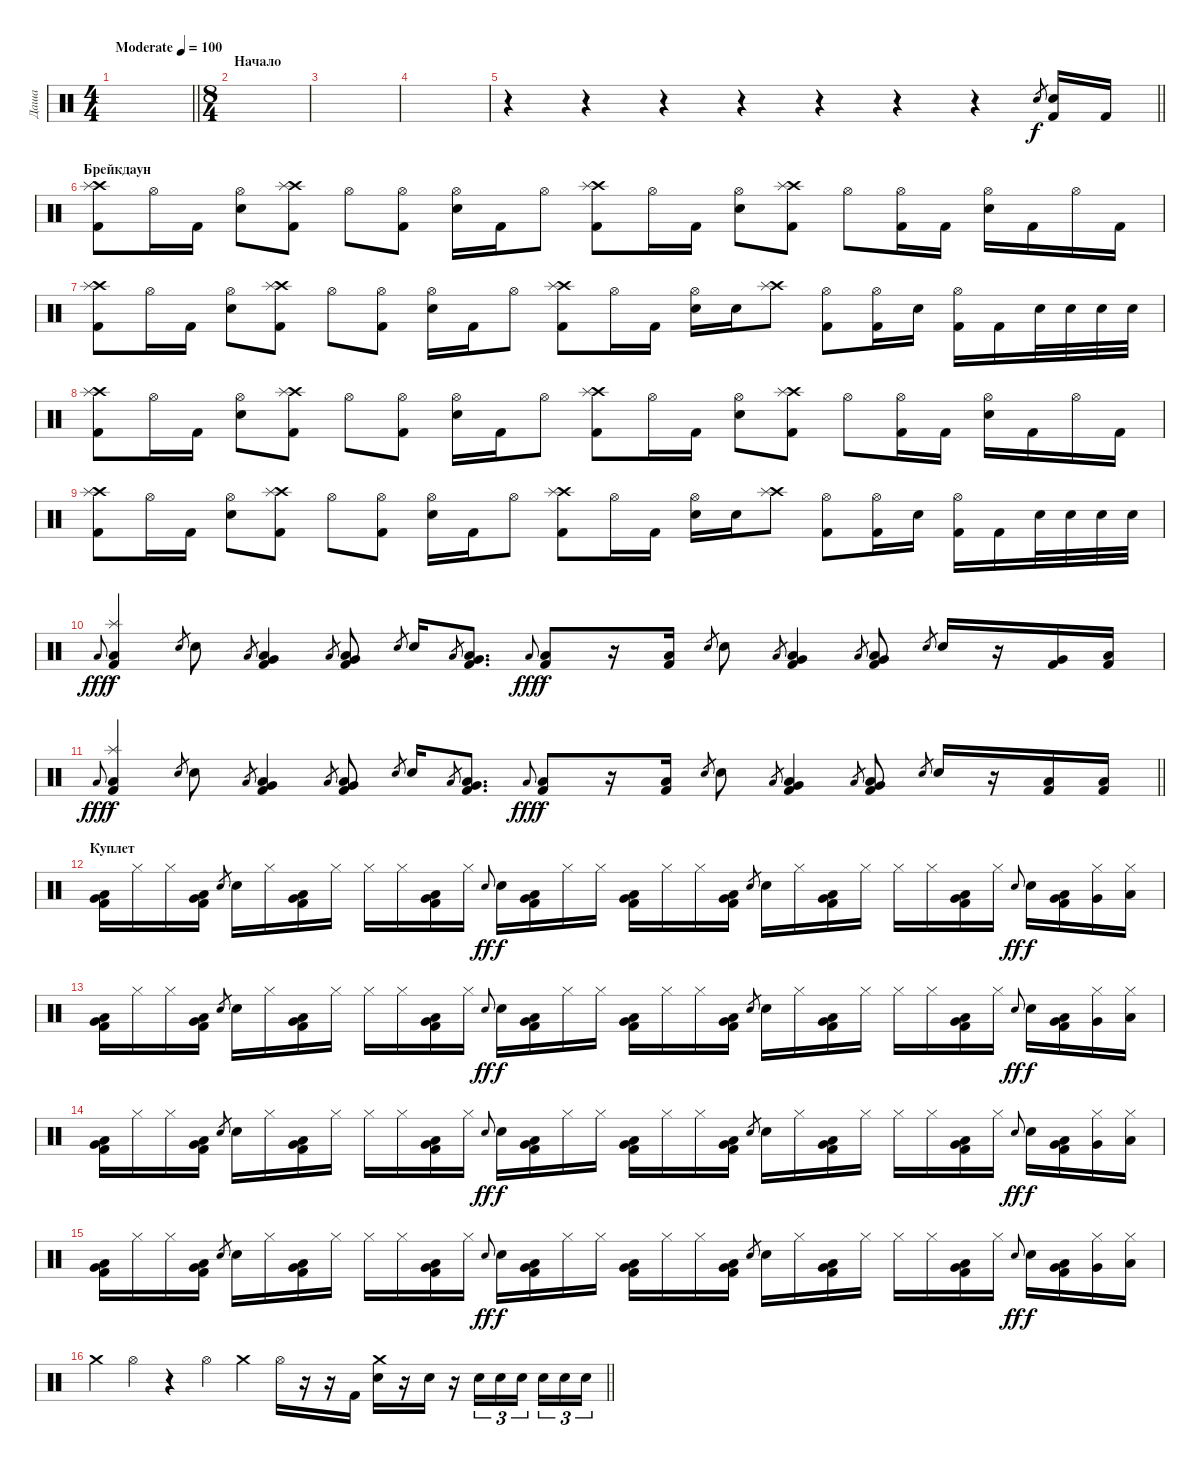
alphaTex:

\track ("Даша" "Даша") {instrument percussion}
\staff {score}
\articulation defaults
\ts (4 4)
\tempo (100 "Moderate")
\clef neutral
\barLineRight lightlight
\ks c
|
\ts (8 4)
\section ("" "Начало")
|
|
|
\barLineRight lightlight
r.4 r.4 r.4 r.4 r.4 r.4 r.4 "Electric Snare (hit)".8{gr} ("Electric Snare (hit)" "Kick (hit) 2").16 "Kick (hit) 2".16 |
\section ("" "Брейкдаун")
("Crash high (hit)" "Splash (hit)" "Kick (hit) 2").8 "Hi-Hat (open)".16 "Kick (hit) 2".16 ("Hi-Hat (open)" "Electric Snare (hit)").8 ("Crash high (hit)" "Splash (hit)" "Kick (hit) 2").8 "Hi-Hat (open)".8 ("Hi-Hat (open)" "Kick (hit) 2").8 ("Hi-Hat (open)" "Electric Snare (hit)").16 "Kick (hit) 2".16 "Hi-Hat (open)".8 ("Crash high (hit)" "Splash (hit)" "Kick (hit) 2").8 "Hi-Hat (open)".16 "Kick (hit) 2".16 ("Hi-Hat (open)" "Electric Snare (hit)").8 ("Crash high (hit)" "Splash (hit)" "Kick (hit) 2").8 "Hi-Hat (open)".8 ("Hi-Hat (open)" "Kick (hit) 2").16 "Kick (hit) 2".16 ("Hi-Hat (open)" "Electric Snare (hit)").16 "Kick (hit) 2".16 "Hi-Hat (open)".16 "Kick (hit) 2".16 |
("Crash high (hit)" "Splash (hit)" "Kick (hit) 2").8 "Hi-Hat (open)".16 "Kick (hit) 2".16 ("Hi-Hat (open)" "Electric Snare (hit)").8 ("Crash high (hit)" "Splash (hit)" "Kick (hit) 2").8 "Hi-Hat (open)".8 ("Hi-Hat (open)" "Kick (hit) 2").8 ("Hi-Hat (open)" "Electric Snare (hit)").16 "Kick (hit) 2".16 "Hi-Hat (open)".8 ("Crash high (hit)" "Splash (hit)" "Kick (hit) 2").8 "Hi-Hat (open)".16 "Kick (hit) 2".16 ("Hi-Hat (open)" "Electric Snare (hit)").16 "Electric Snare (hit)".16 ("Crash high (hit)" "Splash (hit)").8 ("Hi-Hat (open)" "Kick (hit) 2").8 ("Hi-Hat (open)" "Kick (hit) 2").16 "Electric Snare (hit)".16 ("Hi-Hat (open)" "Kick (hit) 2").16 "Kick (hit) 2".16 "Electric Snare (hit)".32 "Electric Snare (hit)".32 "Electric Snare (hit)".32 "Electric Snare (hit)".32 |
("Crash high (hit)" "Splash (hit)" "Kick (hit) 2").8 "Hi-Hat (open)".16 "Kick (hit) 2".16 ("Hi-Hat (open)" "Electric Snare (hit)").8 ("Crash high (hit)" "Splash (hit)" "Kick (hit) 2").8 "Hi-Hat (open)".8 ("Hi-Hat (open)" "Kick (hit) 2").8 ("Hi-Hat (open)" "Electric Snare (hit)").16 "Kick (hit) 2".16 "Hi-Hat (open)".8 ("Crash high (hit)" "Splash (hit)" "Kick (hit) 2").8 "Hi-Hat (open)".16 "Kick (hit) 2".16 ("Hi-Hat (open)" "Electric Snare (hit)").8 ("Crash high (hit)" "Splash (hit)" "Kick (hit) 2").8 "Hi-Hat (open)".8 ("Hi-Hat (open)" "Kick (hit) 2").16 "Kick (hit) 2".16 ("Hi-Hat (open)" "Electric Snare (hit)").16 "Kick (hit) 2".16 "Hi-Hat (open)".16 "Kick (hit) 2".16 |
("Crash high (hit)" "Splash (hit)" "Kick (hit) 2").8 "Hi-Hat (open)".16 "Kick (hit) 2".16 ("Hi-Hat (open)" "Electric Snare (hit)").8 ("Crash high (hit)" "Splash (hit)" "Kick (hit) 2").8 "Hi-Hat (open)".8 ("Hi-Hat (open)" "Kick (hit) 2").8 ("Hi-Hat (open)" "Electric Snare (hit)").16 "Kick (hit) 2".16 "Hi-Hat (open)".8 ("Crash high (hit)" "Splash (hit)" "Kick (hit) 2").8 "Hi-Hat (open)".16 "Kick (hit) 2".16 ("Hi-Hat (open)" "Electric Snare (hit)").16 "Electric Snare (hit)".16 ("Crash high (hit)" "Splash (hit)").8 ("Hi-Hat (open)" "Kick (hit) 2").8 ("Hi-Hat (open)" "Kick (hit) 2").16 "Electric Snare (hit)".16 ("Hi-Hat (open)" "Kick (hit) 2").16 "Kick (hit) 2".16 "Electric Snare (hit)".32 "Electric Snare (hit)".32 "Electric Snare (hit)".32 "Electric Snare (hit)".32 |
"Low Floor Tom (hit)".8{gr onbeat dy fff} ("Splash (hit)" "Low Floor Tom (hit)" "Kick (hit) 2").4{dy f} "Electric Snare (hit)".8{gr} "Electric Snare (hit)".8 "Low Floor Tom (hit)".8{gr} ("Very Low Tom (hit)" "Low Floor Tom (hit)" "Kick (hit) 2").4 "Low Floor Tom (hit)".8{gr} ("Very Low Tom (hit)" "Low Floor Tom (hit)" "Kick (hit) 2").8 "Electric Snare (hit)".8{gr} "Electric Snare (hit)".16 "Low Floor Tom (hit)".8{gr} ("Very Low Tom (hit)" "Low Floor Tom (hit)" "Kick (hit) 2").8{d} "Low Floor Tom (hit)".8{gr onbeat dy fff} ("Low Floor Tom (hit)" "Kick (hit) 2").8{dy f} r.16 ("Low Floor Tom (hit)" "Kick (hit) 2").16 "Electric Snare (hit)".8{gr} "Electric Snare (hit)".8 "Low Floor Tom (hit)".8{gr} ("Very Low Tom (hit)" "Low Floor Tom (hit)" "Kick (hit) 2").4 "Low Floor Tom (hit)".8{gr} ("Very Low Tom (hit)" "Low Floor Tom (hit)" "Kick (hit) 2").8 "Electric Snare (hit)".8{gr} "Electric Snare (hit)".16 r.16 ("Very Low Tom (hit)" "Kick (hit) 2").16 ("Low Floor Tom (hit)" "Kick (hit) 2").16 |
\barLineRight lightlight "Low Floor Tom (hit)".8{gr onbeat dy fff}
("Splash (hit)" "Low Floor Tom (hit)" "Kick (hit) 2").4{dy f} "Electric Snare (hit)".8{gr} "Electric Snare (hit)".8 "Low Floor Tom (hit)".8{gr} ("Very Low Tom (hit)" "Low Floor Tom (hit)" "Kick (hit) 2").4 "Low Floor Tom (hit)".8{gr} ("Very Low Tom (hit)" "Low Floor Tom (hit)" "Kick (hit) 2").8 "Electric Snare (hit)".8{gr} "Electric Snare (hit)".16 "Low Floor Tom (hit)".8{gr} ("Very Low Tom (hit)" "Low Floor Tom (hit)" "Kick (hit) 2").8{d} "Low Floor Tom (hit)".8{gr onbeat dy fff} ("Low Floor Tom (hit)" "Kick (hit) 2").8{dy f} r.16 ("Low Floor Tom (hit)" "Kick (hit) 2").16 "Electric Snare (hit)".8{gr} "Electric Snare (hit)".8 "Low Floor Tom (hit)".8{gr} ("Very Low Tom (hit)" "Low Floor Tom (hit)" "Kick (hit) 2").4 "Low Floor Tom (hit)".8{gr} ("Very Low Tom (hit)" "Low Floor Tom (hit)" "Kick (hit) 2").8 "Electric Snare (hit)".8{gr} "Electric Snare (hit)".16 r.16 ("Low Floor Tom (hit)" "Kick (hit) 2").16 ("Low Floor Tom (hit)" "Kick (hit) 2").16 |
\section ("" "Куплет")
("Low Floor Tom (hit)" "Very Low Tom (hit)" "Kick (hit) 2").16 "Hi-Hat (closed)".16 "Hi-Hat (closed)".16 ("Low Floor Tom (hit)" "Very Low Tom (hit)" "Kick (hit) 2").16 "Electric Snare (hit)".8{gr} "Electric Snare (hit)".16 "Hi-Hat (closed)".16 ("Low Floor Tom (hit)" "Very Low Tom (hit)" "Kick (hit) 2").16 "Hi-Hat (closed)".16 "Hi-Hat (closed)".16 "Hi-Hat (closed)".16 ("Low Floor Tom (hit)" "Very Low Tom (hit)" "Kick (hit) 2").16 "Hi-Hat (closed)".16 "Electric Snare (hit)".8{gr onbeat dy ff} "Electric Snare (hit)".16{dy f} ("Low Floor Tom (hit)" "Very Low Tom (hit)" "Kick (hit) 2").16 "Hi-Hat (closed)".16 "Hi-Hat (closed)".16 ("Low Floor Tom (hit)" "Very Low Tom (hit)" "Kick (hit) 2").16 "Hi-Hat (closed)".16 "Hi-Hat (closed)".16 ("Low Floor Tom (hit)" "Very Low Tom (hit)" "Kick (hit) 2").16 "Electric Snare (hit)".8{gr} "Electric Snare (hit)".16 "Hi-Hat (closed)".16 ("Low Floor Tom (hit)" "Very Low Tom (hit)" "Kick (hit) 2").16 "Hi-Hat (closed)".16 "Hi-Hat (closed)".16 "Hi-Hat (closed)".16 ("Low Floor Tom (hit)" "Very Low Tom (hit)" "Kick (hit) 2").16 "Hi-Hat (closed)".16 "Electric Snare (hit)".8{gr onbeat dy ff} "Electric Snare (hit)".16{dy f} ("Low Tom (hit)" "Very Low Tom (hit)" "Kick (hit) 2").16 ("Hi-Hat (closed)" "Very Low Tom (hit)").16 ("Hi-Hat (closed)" "Low Floor Tom (hit)").16 |
("Low Floor Tom (hit)" "Very Low Tom (hit)" "Kick (hit) 2").16 "Hi-Hat (closed)".16 "Hi-Hat (closed)".16 ("Low Floor Tom (hit)" "Very Low Tom (hit)" "Kick (hit) 2").16 "Electric Snare (hit)".8{gr} "Electric Snare (hit)".16 "Hi-Hat (closed)".16 ("Low Floor Tom (hit)" "Very Low Tom (hit)" "Kick (hit) 2").16 "Hi-Hat (closed)".16 "Hi-Hat (closed)".16 "Hi-Hat (closed)".16 ("Low Floor Tom (hit)" "Very Low Tom (hit)" "Kick (hit) 2").16 "Hi-Hat (closed)".16 "Electric Snare (hit)".8{gr onbeat dy ff} "Electric Snare (hit)".16{dy f} ("Low Floor Tom (hit)" "Very Low Tom (hit)" "Kick (hit) 2").16 "Hi-Hat (closed)".16 "Hi-Hat (closed)".16 ("Low Floor Tom (hit)" "Very Low Tom (hit)" "Kick (hit) 2").16 "Hi-Hat (closed)".16 "Hi-Hat (closed)".16 ("Low Floor Tom (hit)" "Very Low Tom (hit)" "Kick (hit) 2").16 "Electric Snare (hit)".8{gr} "Electric Snare (hit)".16 "Hi-Hat (closed)".16 ("Low Floor Tom (hit)" "Very Low Tom (hit)" "Kick (hit) 2").16 "Hi-Hat (closed)".16 "Hi-Hat (closed)".16 "Hi-Hat (closed)".16 ("Low Floor Tom (hit)" "Very Low Tom (hit)" "Kick (hit) 2").16 "Hi-Hat (closed)".16 "Electric Snare (hit)".8{gr onbeat dy ff} "Electric Snare (hit)".16{dy f} ("Low Tom (hit)" "Very Low Tom (hit)" "Kick (hit) 2").16 ("Hi-Hat (closed)" "Very Low Tom (hit)").16 ("Hi-Hat (closed)" "Low Floor Tom (hit)").16 |
("Low Floor Tom (hit)" "Very Low Tom (hit)" "Kick (hit) 2").16 "Hi-Hat (closed)".16 "Hi-Hat (closed)".16 ("Low Floor Tom (hit)" "Very Low Tom (hit)" "Kick (hit) 2").16 "Electric Snare (hit)".8{gr} "Electric Snare (hit)".16 "Hi-Hat (closed)".16 ("Low Floor Tom (hit)" "Very Low Tom (hit)" "Kick (hit) 2").16 "Hi-Hat (closed)".16 "Hi-Hat (closed)".16 "Hi-Hat (closed)".16 ("Low Floor Tom (hit)" "Very Low Tom (hit)" "Kick (hit) 2").16 "Hi-Hat (closed)".16 "Electric Snare (hit)".8{gr onbeat dy ff} "Electric Snare (hit)".16{dy f} ("Low Floor Tom (hit)" "Very Low Tom (hit)" "Kick (hit) 2").16 "Hi-Hat (closed)".16 "Hi-Hat (closed)".16 ("Low Floor Tom (hit)" "Very Low Tom (hit)" "Kick (hit) 2").16 "Hi-Hat (closed)".16 "Hi-Hat (closed)".16 ("Low Floor Tom (hit)" "Very Low Tom (hit)" "Kick (hit) 2").16 "Electric Snare (hit)".8{gr} "Electric Snare (hit)".16 "Hi-Hat (closed)".16 ("Low Floor Tom (hit)" "Very Low Tom (hit)" "Kick (hit) 2").16 "Hi-Hat (closed)".16 "Hi-Hat (closed)".16 "Hi-Hat (closed)".16 ("Low Floor Tom (hit)" "Very Low Tom (hit)" "Kick (hit) 2").16 "Hi-Hat (closed)".16 "Electric Snare (hit)".8{gr onbeat dy ff} "Electric Snare (hit)".16{dy f} ("Low Tom (hit)" "Very Low Tom (hit)" "Kick (hit) 2").16 ("Hi-Hat (closed)" "Very Low Tom (hit)").16 ("Hi-Hat (closed)" "Low Floor Tom (hit)").16 |
("Low Floor Tom (hit)" "Very Low Tom (hit)" "Kick (hit) 2").16 "Hi-Hat (closed)".16 "Hi-Hat (closed)".16 ("Low Floor Tom (hit)" "Very Low Tom (hit)" "Kick (hit) 2").16 "Electric Snare (hit)".8{gr} "Electric Snare (hit)".16 "Hi-Hat (closed)".16 ("Low Floor Tom (hit)" "Very Low Tom (hit)" "Kick (hit) 2").16 "Hi-Hat (closed)".16 "Hi-Hat (closed)".16 "Hi-Hat (closed)".16 ("Low Floor Tom (hit)" "Very Low Tom (hit)" "Kick (hit) 2").16 "Hi-Hat (closed)".16 "Electric Snare (hit)".8{gr onbeat dy ff} "Electric Snare (hit)".16{dy f} ("Low Floor Tom (hit)" "Very Low Tom (hit)" "Kick (hit) 2").16 "Hi-Hat (closed)".16 "Hi-Hat (closed)".16 ("Low Floor Tom (hit)" "Very Low Tom (hit)" "Kick (hit) 2").16 "Hi-Hat (closed)".16 "Hi-Hat (closed)".16 ("Low Floor Tom (hit)" "Very Low Tom (hit)" "Kick (hit) 2").16 "Electric Snare (hit)".8{gr} "Electric Snare (hit)".16 "Hi-Hat (closed)".16 ("Low Floor Tom (hit)" "Very Low Tom (hit)" "Kick (hit) 2").16 "Hi-Hat (closed)".16 "Hi-Hat (closed)".16 "Hi-Hat (closed)".16 ("Low Floor Tom (hit)" "Very Low Tom (hit)" "Kick (hit) 2").16 "Hi-Hat (closed)".16 "Electric Snare (hit)".8{gr onbeat dy ff} "Electric Snare (hit)".16{dy f} ("Low Tom (hit)" "Very Low Tom (hit)" "Kick (hit) 2").16 ("Hi-Hat (closed)" "Very Low Tom (hit)").16 ("Hi-Hat (closed)" "Low Floor Tom (hit)").16 |
\barLineRight lightlight "Crash medium (hit)".4 "Hi-Hat (open)".4
r.4 "Hi-Hat (open)".4 "Crash medium (hit)".4 "Hi-Hat (open)".16 r.16 r.16 "Kick (hit) 2".16 ("Crash medium (hit)" "Electric Snare (hit)").16 r.16 "Electric Snare (hit)".16 r.16 "Electric Snare (hit)".16{tu (3 2)} "Electric Snare (hit)".16{tu (3 2)} "Electric Snare (hit)".16{tu (3 2) beam splitsecondary} "Electric Snare (hit)".16{tu (3 2)} "Electric Snare (hit)".16{tu (3 2)} "Electric Snare (hit)".16{tu (3 2)}
